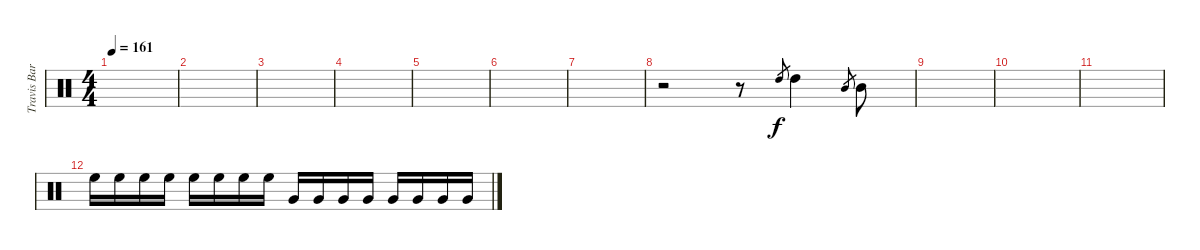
\track ("Travis Barker - Overdubbed Drums" "Travis Bar") {instrument percussion}
\staff {score}
\articulation defaults
\ts (4 4)
\tempo 161
\clef neutral
\ks c
|
|
|
|
|
|
|
r.2 r.8 "High Tom (hit)".8{gr dy f} "High Tom (hit)".4 "Mid Tom (hit)".8{gr} "Mid Tom (hit)".8 |
|
|
|
"High Floor Tom (hit)".16 "High Floor Tom (hit)".16 "High Floor Tom (hit)".16 "High Floor Tom (hit)".16 "High Floor Tom (hit)".16 "High Floor Tom (hit)".16 "High Floor Tom (hit)".16 "High Floor Tom (hit)".16 "Very Low Tom (hit)".16 "Very Low Tom (hit)".16 "Very Low Tom (hit)".16 "Very Low Tom (hit)".16 "Very Low Tom (hit)".16 "Very Low Tom (hit)".16 "Very Low Tom (hit)".16 "Very Low Tom (hit)".16
